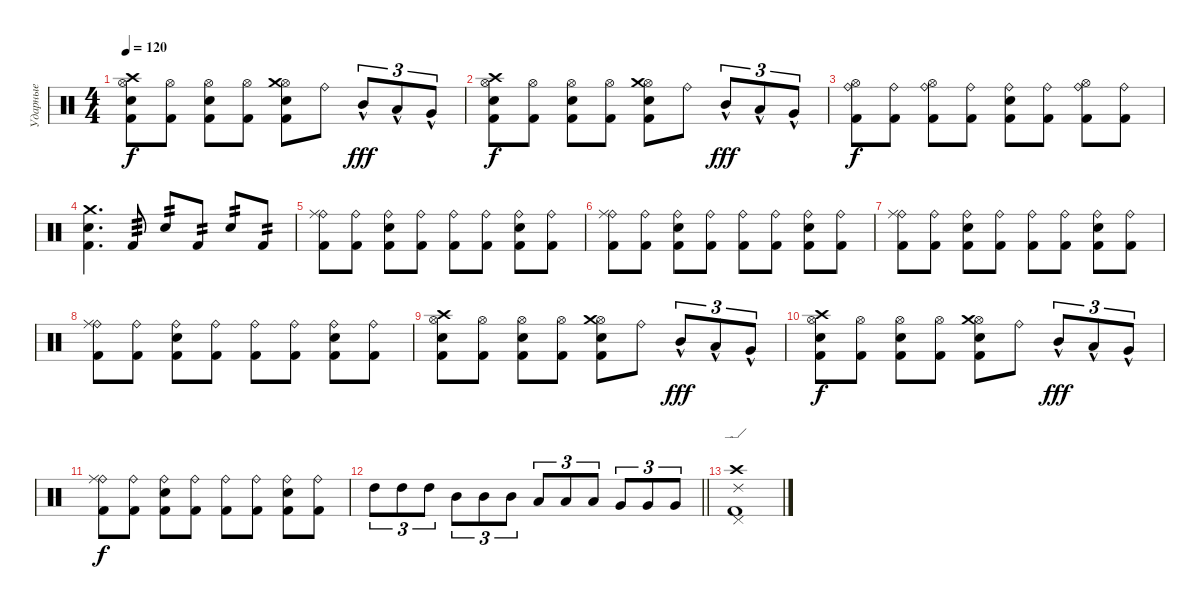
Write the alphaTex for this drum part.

\track ("Ударные" "Ударные") {instrument percussion}
\staff {score}
\articulation defaults
\ts (4 4)
\tempo 120
\clef neutral
\ks c
("Kick (hit) 2" "Crash high (hit)" "Hi-Hat (open)" "Snare (hit) 2").8{dy f} ("Kick (hit) 2" "Hi-Hat (open)").8 ("Kick (hit) 2" "Hi-Hat (open)" "Snare (hit) 2").8 ("Kick (hit) 2" "Hi-Hat (open)").8 ("Kick (hit) 2" "Hi-Hat (open)" "Crash medium (hit)" "Snare (hit) 2").8 "Ride (bell)".8 "Mid Tom (hit)"{hac}.8{tu (3 2) dy fff} "Low Tom (hit)"{hac}.8{tu (3 2)} "Very Low Tom (hit)"{hac}.8{tu (3 2)} |
("Kick (hit) 2" "Crash high (hit)" "Hi-Hat (open)" "Snare (hit) 2").8{dy f} ("Kick (hit) 2" "Hi-Hat (open)").8 ("Kick (hit) 2" "Hi-Hat (open)" "Snare (hit) 2").8 ("Kick (hit) 2" "Hi-Hat (open)").8 ("Kick (hit) 2" "Hi-Hat (open)" "Crash medium (hit)" "Snare (hit) 2").8 "Ride (bell)".8 "Mid Tom (hit)"{hac}.8{tu (3 2) dy fff} "Low Tom (hit)"{hac}.8{tu (3 2)} "Very Low Tom (hit)"{hac}.8{tu (3 2)} |
("Kick (hit) 2" "Ride (bell)" "Hi-Hat (open)").8{dy f} ("Kick (hit) 2" "Ride (bell)").8 ("Kick (hit) 2" "Ride (bell)" "Hi-Hat (open)").8 ("Kick (hit) 2" "Ride (bell)").8 ("Kick (hit) 2" "Ride (bell)" "Snare (hit) 2").8 ("Kick (hit) 2" "Ride (bell)").8 ("Kick (hit) 2" "Ride (bell)" "Hi-Hat (open)").8 ("Kick (hit) 2" "Ride (bell)").8 |
("Kick (hit) 2" "Snare (hit) 2" "Crash medium (hit)").4{d} "Kick (hit) 2".8{tp 3} "Snare (hit) 2".8{tp 2} "Kick (hit) 2".8{tp 2} "Snare (hit) 2".8{tp 2} "Kick (hit) 2".8{tp 2} |
("Kick (hit) 2" "Ride (bell)" "Ride (middle)").8 ("Kick (hit) 2" "Ride (bell)").8 ("Kick (hit) 2" "Ride (bell)" "Snare (hit) 2").8 ("Kick (hit) 2" "Ride (bell)").8 ("Kick (hit) 2" "Ride (bell)").8 ("Kick (hit) 2" "Ride (bell)").8 ("Kick (hit) 2" "Ride (bell)" "Snare (hit) 2").8 ("Kick (hit) 2" "Ride (bell)").8 |
("Kick (hit) 2" "Ride (bell)" "Ride (middle)").8 ("Kick (hit) 2" "Ride (bell)").8 ("Kick (hit) 2" "Ride (bell)" "Snare (hit) 2").8 ("Kick (hit) 2" "Ride (bell)").8 ("Kick (hit) 2" "Ride (bell)").8 ("Kick (hit) 2" "Ride (bell)").8 ("Kick (hit) 2" "Ride (bell)" "Snare (hit) 2").8 ("Kick (hit) 2" "Ride (bell)").8 |
("Kick (hit) 2" "Ride (bell)" "Ride (middle)").8 ("Kick (hit) 2" "Ride (bell)").8 ("Kick (hit) 2" "Ride (bell)" "Snare (hit) 2").8 ("Kick (hit) 2" "Ride (bell)").8 ("Kick (hit) 2" "Ride (bell)").8 ("Kick (hit) 2" "Ride (bell)").8 ("Kick (hit) 2" "Ride (bell)" "Snare (hit) 2").8 ("Kick (hit) 2" "Ride (bell)").8 |
("Kick (hit) 2" "Ride (bell)" "Ride (middle)").8 ("Kick (hit) 2" "Ride (bell)").8 ("Kick (hit) 2" "Ride (bell)" "Snare (hit) 2").8 ("Kick (hit) 2" "Ride (bell)").8 ("Kick (hit) 2" "Ride (bell)").8 ("Kick (hit) 2" "Ride (bell)").8 ("Kick (hit) 2" "Ride (bell)" "Snare (hit) 2").8 ("Kick (hit) 2" "Ride (bell)").8 |
("Kick (hit) 2" "Crash high (hit)" "Hi-Hat (open)" "Snare (hit) 2").8 ("Kick (hit) 2" "Hi-Hat (open)").8 ("Kick (hit) 2" "Hi-Hat (open)" "Snare (hit) 2").8 ("Kick (hit) 2" "Hi-Hat (open)").8 ("Kick (hit) 2" "Hi-Hat (open)" "Crash medium (hit)" "Snare (hit) 2").8 "Ride (bell)".8 "Mid Tom (hit)"{hac}.8{tu (3 2) dy fff} "Low Tom (hit)"{hac}.8{tu (3 2)} "Very Low Tom (hit)"{hac}.8{tu (3 2)} |
("Kick (hit) 2" "Crash high (hit)" "Hi-Hat (open)" "Snare (hit) 2").8{dy f} ("Kick (hit) 2" "Hi-Hat (open)").8 ("Kick (hit) 2" "Hi-Hat (open)" "Snare (hit) 2").8 ("Kick (hit) 2" "Hi-Hat (open)").8 ("Kick (hit) 2" "Hi-Hat (open)" "Crash medium (hit)" "Snare (hit) 2").8 "Ride (bell)".8 "Mid Tom (hit)"{hac}.8{tu (3 2) dy fff} "Low Tom (hit)"{hac}.8{tu (3 2)} "Very Low Tom (hit)"{hac}.8{tu (3 2)} |
("Kick (hit) 2" "Ride (bell)" "Ride (middle)").8{dy f} ("Kick (hit) 2" "Ride (bell)").8 ("Kick (hit) 2" "Ride (bell)" "Snare (hit) 2").8 ("Kick (hit) 2" "Ride (bell)").8 ("Kick (hit) 2" "Ride (bell)").8 ("Kick (hit) 2" "Ride (bell)").8 ("Kick (hit) 2" "Ride (bell)" "Snare (hit) 2").8 ("Kick (hit) 2" "Ride (bell)").8 |
\barLineRight lightlight "High Tom (hit)".8{tu (3 2)} "High Tom (hit)".8{tu (3 2)} "High Tom (hit)".8{tu (3 2)} "Mid Tom (hit)".8{tu (3 2)} "Mid Tom (hit)".8{tu (3 2)} "Mid Tom (hit)".8{tu (3 2)} "Low Tom (hit)".8{tu (3 2)} "Low Tom (hit)".8{tu (3 2)} "Low Tom (hit)".8{tu (3 2)} "Very Low Tom (hit)".8{tu (3 2)} "Very Low Tom (hit)".8{tu (3 2)} "Very Low Tom (hit)".8{tu (3 2)}
|
("Kick (hit) 2" "Crash high (hit)" "Ride (edge) 2" "Pedal Hi-Hat (hit)").1
